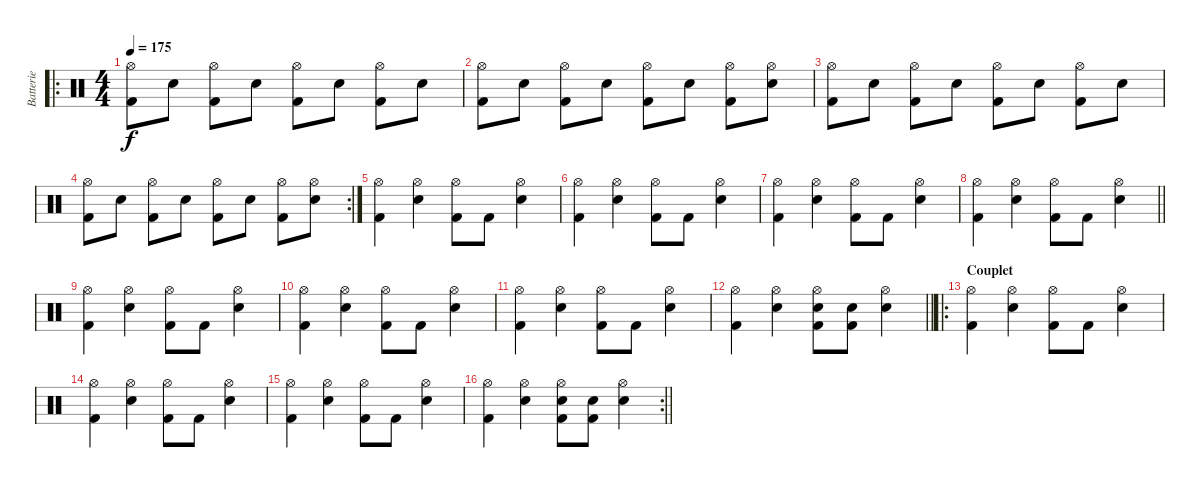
\track ("Batterie" "Batterie") {instrument percussion}
\staff {score}
\articulation defaults
\ro
\ts (4 4)
\tempo 175
\clef neutral
\ks c
("Hi-Hat (open)" "Kick (hit) 2").8{dy f} "Electric Snare (hit)".8 ("Hi-Hat (open)" "Kick (hit) 2").8 "Electric Snare (hit)".8 ("Hi-Hat (open)" "Kick (hit) 2").8 "Electric Snare (hit)".8 ("Hi-Hat (open)" "Kick (hit) 2").8 "Electric Snare (hit)".8 |
("Hi-Hat (open)" "Kick (hit) 2").8 "Electric Snare (hit)".8 ("Hi-Hat (open)" "Kick (hit) 2").8 "Electric Snare (hit)".8 ("Hi-Hat (open)" "Kick (hit) 2").8 "Electric Snare (hit)".8 ("Hi-Hat (open)" "Kick (hit) 2").8 ("Hi-Hat (open)" "Electric Snare (hit)").8 |
("Hi-Hat (open)" "Kick (hit) 2").8 "Electric Snare (hit)".8 ("Hi-Hat (open)" "Kick (hit) 2").8 "Electric Snare (hit)".8 ("Hi-Hat (open)" "Kick (hit) 2").8 "Electric Snare (hit)".8 ("Hi-Hat (open)" "Kick (hit) 2").8 "Electric Snare (hit)".8 |
\rc 2
("Hi-Hat (open)" "Kick (hit) 2").8 "Electric Snare (hit)".8 ("Hi-Hat (open)" "Kick (hit) 2").8 "Electric Snare (hit)".8 ("Hi-Hat (open)" "Kick (hit) 2").8 "Electric Snare (hit)".8 ("Hi-Hat (open)" "Kick (hit) 2").8 ("Hi-Hat (open)" "Electric Snare (hit)").8 |
("Hi-Hat (open)" "Kick (hit) 2").4 ("Hi-Hat (open)" "Electric Snare (hit)").4 ("Hi-Hat (open)" "Kick (hit) 2").8 "Kick (hit) 2".8 ("Hi-Hat (open)" "Electric Snare (hit)").4 |
("Hi-Hat (open)" "Kick (hit) 2").4 ("Hi-Hat (open)" "Electric Snare (hit)").4 ("Hi-Hat (open)" "Kick (hit) 2").8 "Kick (hit) 2".8 ("Hi-Hat (open)" "Electric Snare (hit)").4 |
("Hi-Hat (open)" "Kick (hit) 2").4 ("Hi-Hat (open)" "Electric Snare (hit)").4 ("Hi-Hat (open)" "Kick (hit) 2").8 "Kick (hit) 2".8 ("Hi-Hat (open)" "Electric Snare (hit)").4 |
\barLineRight lightlight
("Hi-Hat (open)" "Kick (hit) 2").4 ("Hi-Hat (open)" "Electric Snare (hit)").4 ("Hi-Hat (open)" "Kick (hit) 2").8 "Kick (hit) 2".8 ("Hi-Hat (open)" "Electric Snare (hit)").4 |
("Hi-Hat (open)" "Kick (hit) 2").4 ("Hi-Hat (open)" "Electric Snare (hit)").4 ("Hi-Hat (open)" "Kick (hit) 2").8 "Kick (hit) 2".8 ("Hi-Hat (open)" "Electric Snare (hit)").4 |
("Hi-Hat (open)" "Kick (hit) 2").4 ("Hi-Hat (open)" "Electric Snare (hit)").4 ("Hi-Hat (open)" "Kick (hit) 2").8 "Kick (hit) 2".8 ("Hi-Hat (open)" "Electric Snare (hit)").4 |
("Hi-Hat (open)" "Kick (hit) 2").4 ("Hi-Hat (open)" "Electric Snare (hit)").4 ("Hi-Hat (open)" "Kick (hit) 2").8 "Kick (hit) 2".8 ("Hi-Hat (open)" "Electric Snare (hit)").4 |
\barLineRight lightlight
("Hi-Hat (open)" "Kick (hit) 2").4 ("Hi-Hat (open)" "Electric Snare (hit)").4 ("Hi-Hat (open)" "Electric Snare (hit)" "Kick (hit) 2").8 ("Electric Snare (hit)" "Kick (hit) 2").8 ("Hi-Hat (open)" "Electric Snare (hit)").4 |
\ro
\section ("" "Couplet")
("Hi-Hat (open)" "Kick (hit) 2").4 ("Hi-Hat (open)" "Electric Snare (hit)").4 ("Hi-Hat (open)" "Kick (hit) 2").8 "Kick (hit) 2".8 ("Hi-Hat (open)" "Electric Snare (hit)").4 |
("Hi-Hat (open)" "Kick (hit) 2").4 ("Hi-Hat (open)" "Electric Snare (hit)").4 ("Hi-Hat (open)" "Kick (hit) 2").8 "Kick (hit) 2".8 ("Hi-Hat (open)" "Electric Snare (hit)").4 |
("Hi-Hat (open)" "Kick (hit) 2").4 ("Hi-Hat (open)" "Electric Snare (hit)").4 ("Hi-Hat (open)" "Kick (hit) 2").8 "Kick (hit) 2".8 ("Hi-Hat (open)" "Electric Snare (hit)").4 |
\rc 2
\barLineRight lightlight
("Hi-Hat (open)" "Kick (hit) 2").4 ("Hi-Hat (open)" "Electric Snare (hit)").4 ("Hi-Hat (open)" "Electric Snare (hit)" "Kick (hit) 2").8 ("Electric Snare (hit)" "Kick (hit) 2").8 ("Hi-Hat (open)" "Electric Snare (hit)").4
